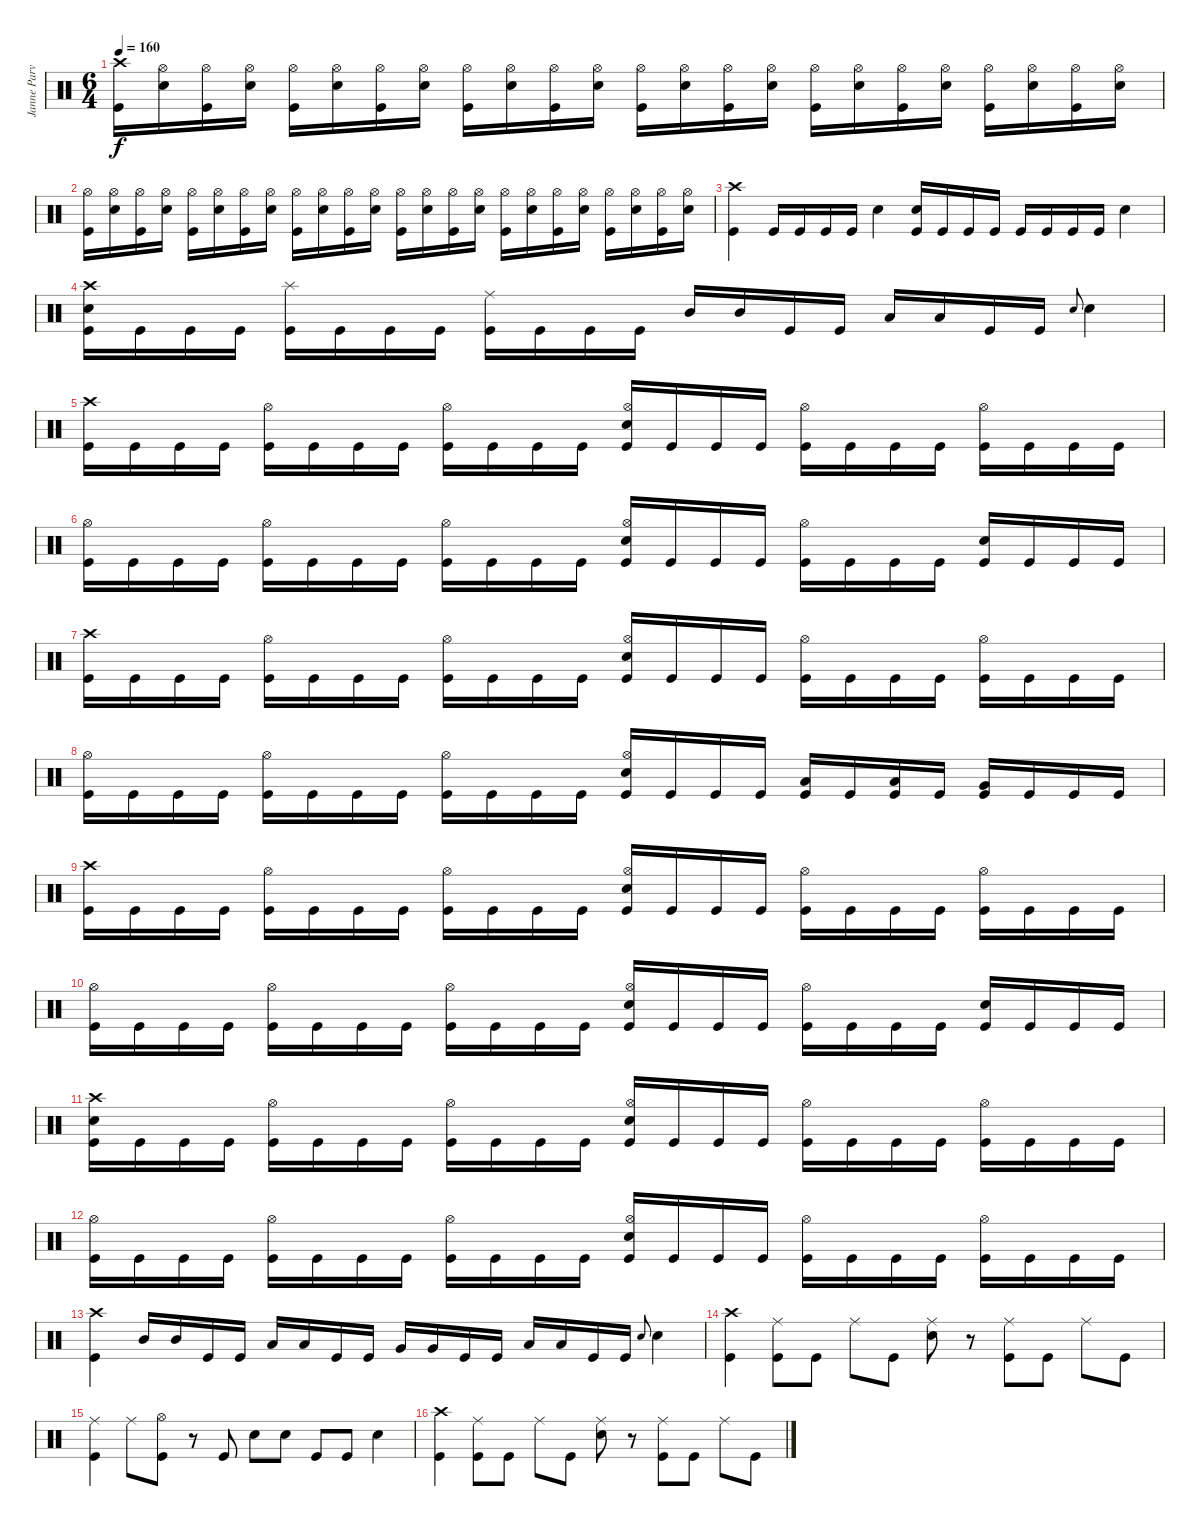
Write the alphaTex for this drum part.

\track ("Janne Parviainen" "Janne Parv") {instrument percussion}
\staff {score}
\articulation defaults
\ts (6 4)
\tempo 160
\clef neutral
\ks c
("Crash high (hit)" "Kick (hit)").16{dy f} ("Hi-Hat (open)" "Electric Snare (hit)").16 ("Hi-Hat (open)" "Kick (hit)").16 ("Hi-Hat (open)" "Electric Snare (hit)").16 ("Hi-Hat (open)" "Kick (hit)").16 ("Hi-Hat (open)" "Electric Snare (hit)").16 ("Hi-Hat (open)" "Kick (hit)").16 ("Hi-Hat (open)" "Electric Snare (hit)").16 ("Hi-Hat (open)" "Kick (hit)").16 ("Hi-Hat (open)" "Electric Snare (hit)").16 ("Hi-Hat (open)" "Kick (hit)").16 ("Hi-Hat (open)" "Electric Snare (hit)").16 ("Hi-Hat (open)" "Kick (hit)").16 ("Hi-Hat (open)" "Electric Snare (hit)").16 ("Hi-Hat (open)" "Kick (hit)").16 ("Hi-Hat (open)" "Electric Snare (hit)").16 ("Hi-Hat (open)" "Kick (hit)").16 ("Hi-Hat (open)" "Electric Snare (hit)").16 ("Hi-Hat (open)" "Kick (hit)").16 ("Hi-Hat (open)" "Electric Snare (hit)").16 ("Hi-Hat (open)" "Kick (hit)").16 ("Hi-Hat (open)" "Electric Snare (hit)").16 ("Hi-Hat (open)" "Kick (hit)").16 ("Hi-Hat (open)" "Electric Snare (hit)").16 |
("Hi-Hat (open)" "Kick (hit)").16 ("Hi-Hat (open)" "Electric Snare (hit)").16 ("Hi-Hat (open)" "Kick (hit)").16 ("Hi-Hat (open)" "Electric Snare (hit)").16 ("Hi-Hat (open)" "Kick (hit)").16 ("Hi-Hat (open)" "Electric Snare (hit)").16 ("Hi-Hat (open)" "Kick (hit)").16 ("Hi-Hat (open)" "Electric Snare (hit)").16 ("Hi-Hat (open)" "Kick (hit)").16 ("Hi-Hat (open)" "Electric Snare (hit)").16 ("Hi-Hat (open)" "Kick (hit)").16 ("Hi-Hat (open)" "Electric Snare (hit)").16 ("Hi-Hat (open)" "Kick (hit)").16 ("Hi-Hat (open)" "Electric Snare (hit)").16 ("Hi-Hat (open)" "Kick (hit)").16 ("Hi-Hat (open)" "Electric Snare (hit)").16 ("Hi-Hat (open)" "Kick (hit)").16 ("Hi-Hat (open)" "Electric Snare (hit)").16 ("Hi-Hat (open)" "Kick (hit)").16 ("Hi-Hat (open)" "Electric Snare (hit)").16 ("Hi-Hat (open)" "Kick (hit)").16 ("Hi-Hat (open)" "Electric Snare (hit)").16 ("Hi-Hat (open)" "Kick (hit)").16 ("Hi-Hat (open)" "Electric Snare (hit)").16 |
("Crash high (hit)" "Kick (hit)").4 "Kick (hit)".16 "Kick (hit)".16 "Kick (hit)".16 "Kick (hit)".16 "Electric Snare (hit)".4 ("Electric Snare (hit)" "Kick (hit)").16 "Kick (hit)".16 "Kick (hit)".16 "Kick (hit)".16 "Kick (hit)".16 "Kick (hit)".16 "Kick (hit)".16 "Kick (hit)".16 "Electric Snare (hit)".4 |
("Crash high (hit)" "Electric Snare (hit)" "Kick (hit)").16 "Kick (hit)".16 "Kick (hit)".16 "Kick (hit)".16 ("Splash (hit)" "Kick (hit)").16 "Kick (hit)".16 "Kick (hit)".16 "Kick (hit)".16 ("Ride (middle)" "Kick (hit)").16 "Kick (hit)".16 "Kick (hit)".16 "Kick (hit)".16 "Mid Tom (hit)".16 "Mid Tom (hit)".16 "Kick (hit)".16 "Kick (hit)".16 "Low Tom (hit)".16 "Low Tom (hit)".16 "Kick (hit)".16 "Kick (hit)".16 "Electric Snare (hit)".8{gr onbeat} "Electric Snare (hit)".4 |
("Crash high (hit)" "Kick (hit)").16 "Kick (hit)".16 "Kick (hit)".16 "Kick (hit)".16 ("Hi-Hat (open)" "Kick (hit)").16 "Kick (hit)".16 "Kick (hit)".16 "Kick (hit)".16 ("Hi-Hat (open)" "Kick (hit)").16 "Kick (hit)".16 "Kick (hit)".16 "Kick (hit)".16 ("Hi-Hat (open)" "Electric Snare (hit)" "Kick (hit)").16 "Kick (hit)".16 "Kick (hit)".16 "Kick (hit)".16 ("Hi-Hat (open)" "Kick (hit)").16 "Kick (hit)".16 "Kick (hit)".16 "Kick (hit)".16 ("Hi-Hat (open)" "Kick (hit)").16 "Kick (hit)".16 "Kick (hit)".16 "Kick (hit)".16 |
("Hi-Hat (open)" "Kick (hit)").16 "Kick (hit)".16 "Kick (hit)".16 "Kick (hit)".16 ("Hi-Hat (open)" "Kick (hit)").16 "Kick (hit)".16 "Kick (hit)".16 "Kick (hit)".16 ("Hi-Hat (open)" "Kick (hit)").16 "Kick (hit)".16 "Kick (hit)".16 "Kick (hit)".16 ("Hi-Hat (open)" "Electric Snare (hit)" "Kick (hit)").16 "Kick (hit)".16 "Kick (hit)".16 "Kick (hit)".16 ("Hi-Hat (open)" "Kick (hit)").16 "Kick (hit)".16 "Kick (hit)".16 "Kick (hit)".16 ("Electric Snare (hit)" "Kick (hit)").16 "Kick (hit)".16 "Kick (hit)".16 "Kick (hit)".16 |
("Crash high (hit)" "Kick (hit)").16 "Kick (hit)".16 "Kick (hit)".16 "Kick (hit)".16 ("Hi-Hat (open)" "Kick (hit)").16 "Kick (hit)".16 "Kick (hit)".16 "Kick (hit)".16 ("Hi-Hat (open)" "Kick (hit)").16 "Kick (hit)".16 "Kick (hit)".16 "Kick (hit)".16 ("Hi-Hat (open)" "Electric Snare (hit)" "Kick (hit)").16 "Kick (hit)".16 "Kick (hit)".16 "Kick (hit)".16 ("Hi-Hat (open)" "Kick (hit)").16 "Kick (hit)".16 "Kick (hit)".16 "Kick (hit)".16 ("Hi-Hat (open)" "Kick (hit)").16 "Kick (hit)".16 "Kick (hit)".16 "Kick (hit)".16 |
("Hi-Hat (open)" "Kick (hit)").16 "Kick (hit)".16 "Kick (hit)".16 "Kick (hit)".16 ("Hi-Hat (open)" "Kick (hit)").16 "Kick (hit)".16 "Kick (hit)".16 "Kick (hit)".16 ("Hi-Hat (open)" "Kick (hit)").16 "Kick (hit)".16 "Kick (hit)".16 "Kick (hit)".16 ("Hi-Hat (open)" "Electric Snare (hit)" "Kick (hit)").16 "Kick (hit)".16 "Kick (hit)".16 "Kick (hit)".16 ("Low Tom (hit)" "Kick (hit)").16 "Kick (hit)".16 ("Low Tom (hit)" "Kick (hit)").16 "Kick (hit)".16 ("Very Low Tom (hit)" "Kick (hit)").16 "Kick (hit)".16 "Kick (hit)".16 "Kick (hit)".16 |
("Crash high (hit)" "Kick (hit)").16 "Kick (hit)".16 "Kick (hit)".16 "Kick (hit)".16 ("Hi-Hat (open)" "Kick (hit)").16 "Kick (hit)".16 "Kick (hit)".16 "Kick (hit)".16 ("Hi-Hat (open)" "Kick (hit)").16 "Kick (hit)".16 "Kick (hit)".16 "Kick (hit)".16 ("Hi-Hat (open)" "Electric Snare (hit)" "Kick (hit)").16 "Kick (hit)".16 "Kick (hit)".16 "Kick (hit)".16 ("Hi-Hat (open)" "Kick (hit)").16 "Kick (hit)".16 "Kick (hit)".16 "Kick (hit)".16 ("Hi-Hat (open)" "Kick (hit)").16 "Kick (hit)".16 "Kick (hit)".16 "Kick (hit)".16 |
("Hi-Hat (open)" "Kick (hit)").16 "Kick (hit)".16 "Kick (hit)".16 "Kick (hit)".16 ("Hi-Hat (open)" "Kick (hit)").16 "Kick (hit)".16 "Kick (hit)".16 "Kick (hit)".16 ("Hi-Hat (open)" "Kick (hit)").16 "Kick (hit)".16 "Kick (hit)".16 "Kick (hit)".16 ("Hi-Hat (open)" "Electric Snare (hit)" "Kick (hit)").16 "Kick (hit)".16 "Kick (hit)".16 "Kick (hit)".16 ("Hi-Hat (open)" "Kick (hit)").16 "Kick (hit)".16 "Kick (hit)".16 "Kick (hit)".16 ("Electric Snare (hit)" "Kick (hit)").16 "Kick (hit)".16 "Kick (hit)".16 "Kick (hit)".16 |
("Crash high (hit)" "Electric Snare (hit)" "Kick (hit)").16 "Kick (hit)".16 "Kick (hit)".16 "Kick (hit)".16 ("Hi-Hat (open)" "Kick (hit)").16 "Kick (hit)".16 "Kick (hit)".16 "Kick (hit)".16 ("Hi-Hat (open)" "Kick (hit)").16 "Kick (hit)".16 "Kick (hit)".16 "Kick (hit)".16 ("Hi-Hat (open)" "Electric Snare (hit)" "Kick (hit)").16 "Kick (hit)".16 "Kick (hit)".16 "Kick (hit)".16 ("Hi-Hat (open)" "Kick (hit)").16 "Kick (hit)".16 "Kick (hit)".16 "Kick (hit)".16 ("Hi-Hat (open)" "Kick (hit)").16 "Kick (hit)".16 "Kick (hit)".16 "Kick (hit)".16 |
("Hi-Hat (open)" "Kick (hit)").16 "Kick (hit)".16 "Kick (hit)".16 "Kick (hit)".16 ("Hi-Hat (open)" "Kick (hit)").16 "Kick (hit)".16 "Kick (hit)".16 "Kick (hit)".16 ("Hi-Hat (open)" "Kick (hit)").16 "Kick (hit)".16 "Kick (hit)".16 "Kick (hit)".16 ("Hi-Hat (open)" "Electric Snare (hit)" "Kick (hit)").16 "Kick (hit)".16 "Kick (hit)".16 "Kick (hit)".16 ("Hi-Hat (open)" "Kick (hit)").16 "Kick (hit)".16 "Kick (hit)".16 "Kick (hit)".16 ("Hi-Hat (open)" "Kick (hit)").16 "Kick (hit)".16 "Kick (hit)".16 "Kick (hit)".16 |
("Crash high (hit)" "Kick (hit)").4 "Mid Tom (hit)".16 "Mid Tom (hit)".16 "Kick (hit)".16 "Kick (hit)".16 "Low Tom (hit)".16 "Low Tom (hit)".16 "Kick (hit)".16 "Kick (hit)".16 "Very Low Tom (hit)".16 "Very Low Tom (hit)".16 "Kick (hit)".16 "Kick (hit)".16 "Low Floor Tom (hit)".16 "Low Floor Tom (hit)".16 "Kick (hit)".16 "Kick (hit)".16 "Electric Snare (hit)".8{gr onbeat} "Electric Snare (hit)".4 |
("Crash high (hit)" "Kick (hit)").4 ("Ride (middle)" "Kick (hit)").8 "Kick (hit)".8 "Ride (middle)".8 "Kick (hit)".8 ("Ride (middle)" "Electric Snare (hit)").8 r.8 ("Ride (middle)" "Kick (hit)").8 "Kick (hit)".8 "Ride (middle)".8 "Kick (hit)".8 |
("Ride (middle)" "Kick (hit)").4 "Ride (middle)".8 ("Hi-Hat (open)" "Kick (hit)").8 r.8 "Kick (hit)".8 "Electric Snare (hit)".8 "Electric Snare (hit)".8 "Kick (hit)".8 "Kick (hit)".8 "Electric Snare (hit)".4 |
("Crash high (hit)" "Kick (hit)").4 ("Ride (middle)" "Kick (hit)").8 "Kick (hit)".8 "Ride (middle)".8 "Kick (hit)".8 ("Ride (middle)" "Electric Snare (hit)").8 r.8 ("Ride (middle)" "Kick (hit)").8 "Kick (hit)".8 "Ride (middle)".8 "Kick (hit)".8
